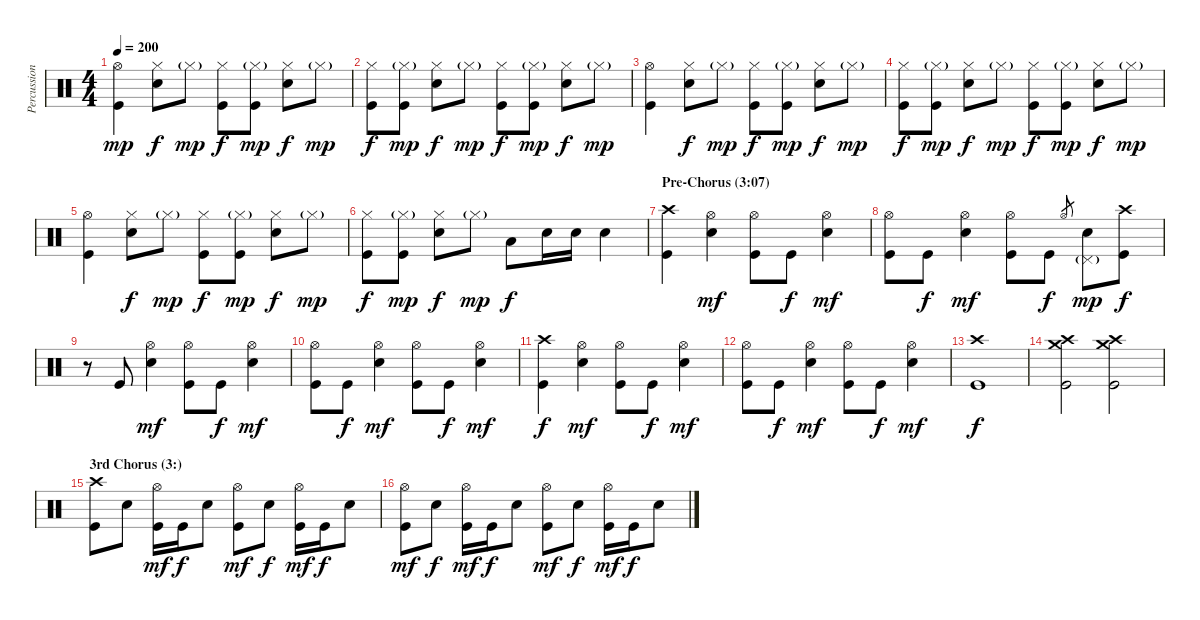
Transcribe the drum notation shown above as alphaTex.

\track ("Percussion" "Percussion") {instrument percussion}
\staff {score}
\articulation defaults
\ts (4 4)
\tempo 200
\clef neutral
\ks c
("Hi-Hat (open)" "Kick (hit)").4{dy mp} ("Hi-Hat (closed)" "Snare (hit) 2").8{dy f} "Hi-Hat (closed)"{g}.8{dy mp} ("Hi-Hat (closed)" "Kick (hit)").8{dy f} ("Hi-Hat (closed)"{g} "Kick (hit)").8{dy mp} ("Hi-Hat (closed)" "Snare (hit) 2").8{dy f} "Hi-Hat (closed)"{g}.8{dy mp} |
("Hi-Hat (closed)" "Kick (hit)").8{dy f} ("Hi-Hat (closed)"{g} "Kick (hit)").8{dy mp} ("Hi-Hat (closed)" "Snare (hit) 2").8{dy f} "Hi-Hat (closed)"{g}.8{dy mp} ("Hi-Hat (closed)" "Kick (hit)").8{dy f} ("Hi-Hat (closed)"{g} "Kick (hit)").8{dy mp} ("Hi-Hat (closed)" "Snare (hit) 2").8{dy f} "Hi-Hat (closed)"{g}.8{dy mp} |
("Hi-Hat (open)" "Kick (hit)").4 ("Hi-Hat (closed)" "Snare (hit) 2").8{dy f} "Hi-Hat (closed)"{g}.8{dy mp} ("Hi-Hat (closed)" "Kick (hit)").8{dy f} ("Hi-Hat (closed)"{g} "Kick (hit)").8{dy mp} ("Hi-Hat (closed)" "Snare (hit) 2").8{dy f} "Hi-Hat (closed)"{g}.8{dy mp} |
("Hi-Hat (closed)" "Kick (hit)").8{dy f} ("Hi-Hat (closed)"{g} "Kick (hit)").8{dy mp} ("Hi-Hat (closed)" "Snare (hit) 2").8{dy f} "Hi-Hat (closed)"{g}.8{dy mp} ("Hi-Hat (closed)" "Kick (hit)").8{dy f} ("Hi-Hat (closed)"{g} "Kick (hit)").8{dy mp} ("Hi-Hat (closed)" "Snare (hit) 2").8{dy f} "Hi-Hat (closed)"{g}.8{dy mp} |
("Hi-Hat (open)" "Kick (hit)").4 ("Hi-Hat (closed)" "Snare (hit) 2").8{dy f} "Hi-Hat (closed)"{g}.8{dy mp} ("Hi-Hat (closed)" "Kick (hit)").8{dy f} ("Hi-Hat (closed)"{g} "Kick (hit)").8{dy mp} ("Hi-Hat (closed)" "Snare (hit) 2").8{dy f} "Hi-Hat (closed)"{g}.8{dy mp} |
("Hi-Hat (closed)" "Kick (hit)").8{dy f} ("Hi-Hat (closed)"{g} "Kick (hit)").8{dy mp} ("Hi-Hat (closed)" "Snare (hit) 2").8{dy f} "Hi-Hat (closed)"{g}.8{dy mp} "Low Tom (hit)".8{dy f} "Snare (hit) 2".16 "Snare (hit) 2".16 "Snare (hit) 2".4 |
\section ("" "Pre-Chorus (3:07)")
("Crash high (hit)" "Kick (hit)").4 ("Hi-Hat (open)" "Snare (hit) 2").4{dy mf} ("Hi-Hat (open)" "Kick (hit)").8 "Kick (hit)".8{dy f} ("Hi-Hat (open)" "Snare (hit) 2").4{dy mf} |
("Hi-Hat (open)" "Kick (hit)").8 "Kick (hit)".8{dy f} ("Hi-Hat (open)" "Snare (hit) 2").4{dy mf} ("Hi-Hat (open)" "Kick (hit)").8 "Kick (hit)".8{dy f} "Hi-Hat (open)".8{gr} ("Pedal Hi-Hat (hit)"{g} "Snare (hit) 2").8{dy mp} ("Crash high (hit)" "Kick (hit)").8{dy f} |
r.8 "Kick (hit)".8 ("Hi-Hat (open)" "Snare (hit) 2").4{dy mf} ("Hi-Hat (open)" "Kick (hit)").8 "Kick (hit)".8{dy f} ("Hi-Hat (open)" "Snare (hit) 2").4{dy mf} |
("Hi-Hat (open)" "Kick (hit)").8 "Kick (hit)".8{dy f} ("Hi-Hat (open)" "Snare (hit) 2").4{dy mf} ("Hi-Hat (open)" "Kick (hit)").8 "Kick (hit)".8{dy f} ("Hi-Hat (open)" "Snare (hit) 2").4{dy mf} |
("Crash high (hit)" "Kick (hit)").4{dy f} ("Hi-Hat (open)" "Snare (hit) 2").4{dy mf} ("Hi-Hat (open)" "Kick (hit)").8 "Kick (hit)".8{dy f} ("Hi-Hat (open)" "Snare (hit) 2").4{dy mf} |
("Hi-Hat (open)" "Kick (hit)").8 "Kick (hit)".8{dy f} ("Hi-Hat (open)" "Snare (hit) 2").4{dy mf} ("Hi-Hat (open)" "Kick (hit)").8 "Kick (hit)".8{dy f} ("Hi-Hat (open)" "Snare (hit) 2").4{dy mf} |
("Crash high (hit)" "Kick (hit)").1{dy f} |
("Crash high (hit)" "Crash medium (hit)" "Kick (hit)").2 ("Crash high (hit)" "Crash medium (hit)" "Kick (hit)").2 |
\section ("" "3rd Chorus (3:)")
("Crash high (hit)" "Kick (hit)").8 "Snare (hit) 2".8 ("Hi-Hat (open)" "Kick (hit)").16{dy mf} "Kick (hit)".16{dy f} "Snare (hit) 2".8 ("Hi-Hat (open)" "Kick (hit)").8{dy mf} "Snare (hit) 2".8{dy f} ("Hi-Hat (open)" "Kick (hit)").16{dy mf} "Kick (hit)".16{dy f} "Snare (hit) 2".8 |
("Hi-Hat (open)" "Kick (hit)").8{dy mf} "Snare (hit) 2".8{dy f} ("Hi-Hat (open)" "Kick (hit)").16{dy mf} "Kick (hit)".16{dy f} "Snare (hit) 2".8 ("Hi-Hat (open)" "Kick (hit)").8{dy mf} "Snare (hit) 2".8{dy f} ("Hi-Hat (open)" "Kick (hit)").16{dy mf} "Kick (hit)".16{dy f} "Snare (hit) 2".8
